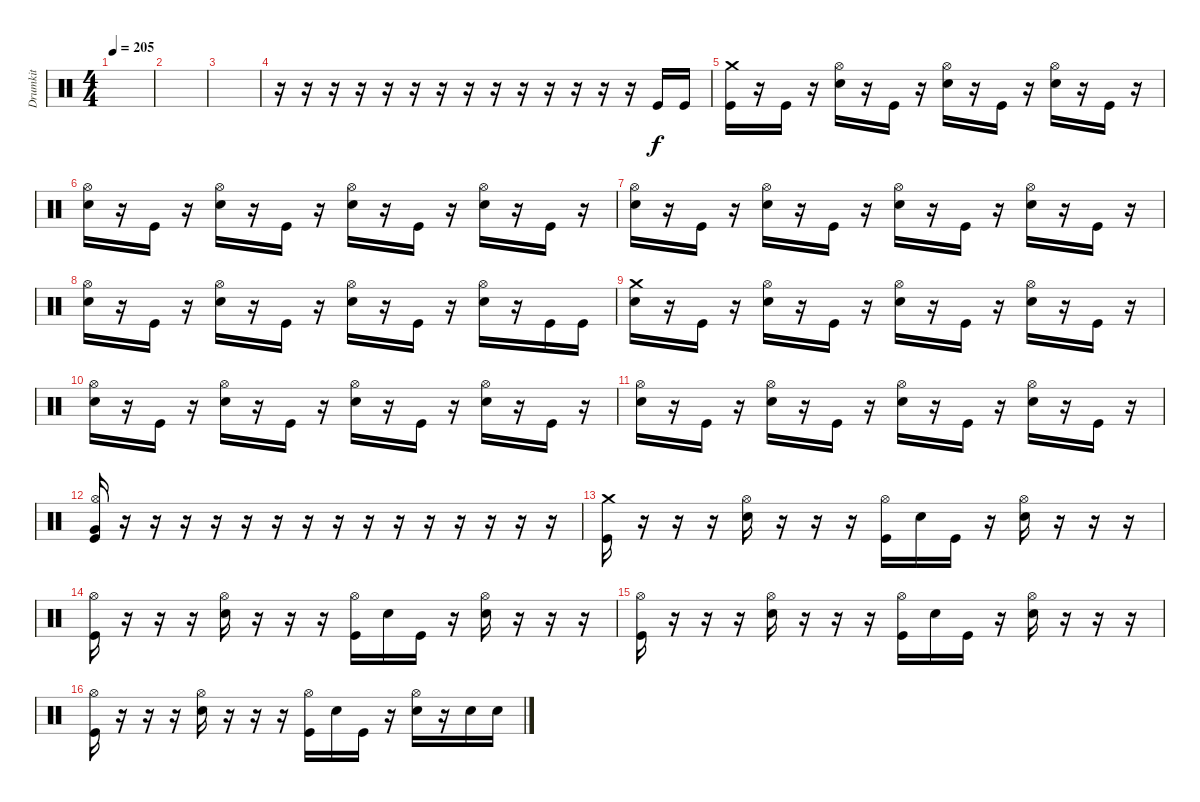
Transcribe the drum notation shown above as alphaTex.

\track ("Drumkit" "Drumkit") {instrument percussion}
\staff {score}
\articulation defaults
\ts (4 4)
\tempo 205
\clef neutral
\ks c
|
|
|
r.16 r.16 r.16 r.16 r.16 r.16 r.16 r.16 r.16 r.16 r.16 r.16 r.16 r.16 "Kick (hit)".16 "Kick (hit)".16 |
("Kick (hit)" "Crash medium (hit)").16 r.16 "Kick (hit)".16 r.16 ("Snare (hit) 2" "Hi-Hat (open)").16 r.16 "Kick (hit)".16 r.16 ("Snare (hit) 2" "Hi-Hat (open)").16 r.16 "Kick (hit)".16 r.16 ("Snare (hit) 2" "Hi-Hat (open)").16 r.16 "Kick (hit)".16 r.16 |
("Snare (hit) 2" "Hi-Hat (open)").16 r.16 "Kick (hit)".16 r.16 ("Snare (hit) 2" "Hi-Hat (open)").16 r.16 "Kick (hit)".16 r.16 ("Snare (hit) 2" "Hi-Hat (open)").16 r.16 "Kick (hit)".16 r.16 ("Snare (hit) 2" "Hi-Hat (open)").16 r.16 "Kick (hit)".16 r.16 |
("Snare (hit) 2" "Hi-Hat (open)").16 r.16 "Kick (hit)".16 r.16 ("Snare (hit) 2" "Hi-Hat (open)").16 r.16 "Kick (hit)".16 r.16 ("Snare (hit) 2" "Hi-Hat (open)").16 r.16 "Kick (hit)".16 r.16 ("Snare (hit) 2" "Hi-Hat (open)").16 r.16 "Kick (hit)".16 r.16 |
("Snare (hit) 2" "Hi-Hat (open)").16 r.16 "Kick (hit)".16 r.16 ("Snare (hit) 2" "Hi-Hat (open)").16 r.16 "Kick (hit)".16 r.16 ("Snare (hit) 2" "Hi-Hat (open)").16 r.16 "Kick (hit)".16 r.16 ("Snare (hit) 2" "Hi-Hat (open)").16 r.16 "Kick (hit)".16 "Kick (hit)".16 |
("Snare (hit) 2" "Crash medium (hit)").16 r.16 "Kick (hit)".16 r.16 ("Snare (hit) 2" "Hi-Hat (open)").16 r.16 "Kick (hit)".16 r.16 ("Snare (hit) 2" "Hi-Hat (open)").16 r.16 "Kick (hit)".16 r.16 ("Snare (hit) 2" "Hi-Hat (open)").16 r.16 "Kick (hit)".16 r.16 |
("Snare (hit) 2" "Hi-Hat (open)").16 r.16 "Kick (hit)".16 r.16 ("Snare (hit) 2" "Hi-Hat (open)").16 r.16 "Kick (hit)".16 r.16 ("Snare (hit) 2" "Hi-Hat (open)").16 r.16 "Kick (hit)".16 r.16 ("Snare (hit) 2" "Hi-Hat (open)").16 r.16 "Kick (hit)".16 r.16 |
("Snare (hit) 2" "Hi-Hat (open)").16 r.16 "Kick (hit)".16 r.16 ("Snare (hit) 2" "Hi-Hat (open)").16 r.16 "Kick (hit)".16 r.16 ("Snare (hit) 2" "Hi-Hat (open)").16 r.16 "Kick (hit)".16 r.16 ("Snare (hit) 2" "Hi-Hat (open)").16 r.16 "Kick (hit)".16 r.16 |
("Hi-Hat (open)" "Kick (hit)" "Very Low Tom (hit)").16 r.16 r.16 r.16 r.16 r.16 r.16 r.16 r.16 r.16 r.16 r.16 r.16 r.16 r.16 r.16 |
("Kick (hit)" "Crash medium (hit)").16 r.16 r.16 r.16 ("Snare (hit) 2" "Hi-Hat (open)").16 r.16 r.16 r.16 ("Hi-Hat (open)" "Kick (hit)").16 "Snare (hit) 2".16 "Kick (hit)".16 r.16 ("Hi-Hat (open)" "Snare (hit) 2").16 r.16 r.16 r.16 |
("Kick (hit)" "Hi-Hat (open)").16 r.16 r.16 r.16 ("Snare (hit) 2" "Hi-Hat (open)").16 r.16 r.16 r.16 ("Kick (hit)" "Hi-Hat (open)").16 "Snare (hit) 2".16 "Kick (hit)".16 r.16 ("Snare (hit) 2" "Hi-Hat (open)").16 r.16 r.16 r.16 |
("Kick (hit)" "Hi-Hat (open)").16 r.16 r.16 r.16 ("Snare (hit) 2" "Hi-Hat (open)").16 r.16 r.16 r.16 ("Kick (hit)" "Hi-Hat (open)").16 "Snare (hit) 2".16 "Kick (hit)".16 r.16 ("Snare (hit) 2" "Hi-Hat (open)").16 r.16 r.16 r.16 |
("Kick (hit)" "Hi-Hat (open)").16 r.16 r.16 r.16 ("Snare (hit) 2" "Hi-Hat (open)").16 r.16 r.16 r.16 ("Kick (hit)" "Hi-Hat (open)").16 "Snare (hit) 2".16 "Kick (hit)".16 r.16 ("Snare (hit) 2" "Hi-Hat (open)").16 r.16 "Snare (hit) 2".16 "Snare (hit) 2".16
